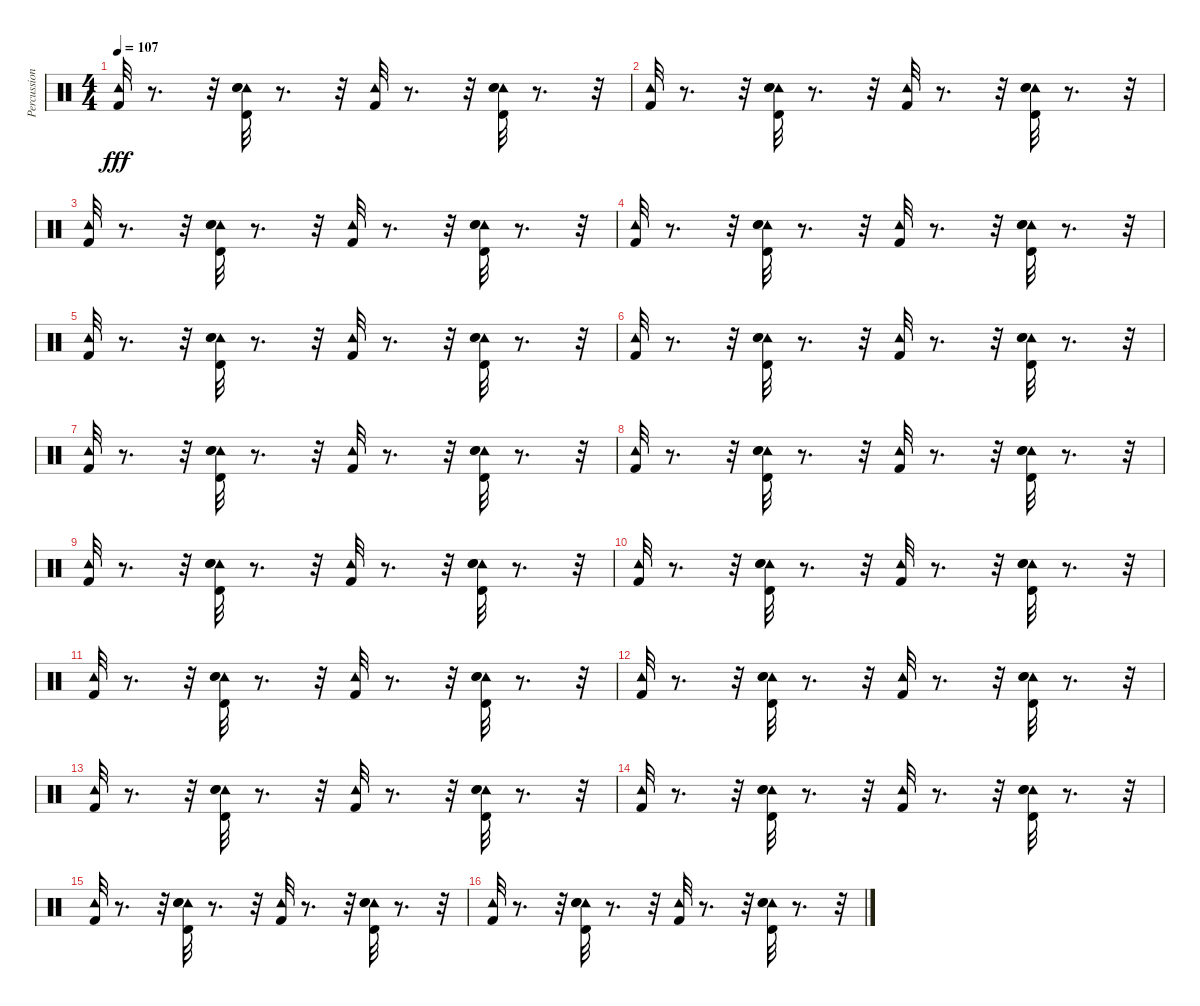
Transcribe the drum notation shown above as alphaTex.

\track ("Percussion" "Percussion") {instrument percussion}
\staff {score}
\articulation defaults
\ts (4 4)
\tempo 107
\clef neutral
\ks c
("Tambourine (hit)" "Kick (hit) 2").32{dy fff} r.8{d} r.32 ("Tambourine (hit)" "Timbale high (hit)" "Electric Snare (hit)" "Snare (hit) 2").32 r.8{d} r.32 ("Tambourine (hit)" "Kick (hit) 2").32 r.8{d} r.32 ("Tambourine (hit)" "Timbale high (hit)" "Electric Snare (hit)" "Snare (hit) 2").32 r.8{d} r.32 |
("Tambourine (hit)" "Kick (hit) 2").32 r.8{d} r.32 ("Tambourine (hit)" "Timbale high (hit)" "Electric Snare (hit)" "Snare (hit) 2").32 r.8{d} r.32 ("Tambourine (hit)" "Kick (hit) 2").32 r.8{d} r.32 ("Tambourine (hit)" "Timbale high (hit)" "Electric Snare (hit)" "Snare (hit) 2").32 r.8{d} r.32 |
("Tambourine (hit)" "Kick (hit) 2").32 r.8{d} r.32 ("Tambourine (hit)" "Timbale high (hit)" "Electric Snare (hit)" "Snare (hit) 2").32 r.8{d} r.32 ("Tambourine (hit)" "Kick (hit) 2").32 r.8{d} r.32 ("Tambourine (hit)" "Timbale high (hit)" "Electric Snare (hit)" "Snare (hit) 2").32 r.8{d} r.32 |
("Tambourine (hit)" "Kick (hit) 2").32 r.8{d} r.32 ("Tambourine (hit)" "Timbale high (hit)" "Electric Snare (hit)" "Snare (hit) 2").32 r.8{d} r.32 ("Tambourine (hit)" "Kick (hit) 2").32 r.8{d} r.32 ("Tambourine (hit)" "Timbale high (hit)" "Electric Snare (hit)" "Snare (hit) 2").32 r.8{d} r.32 |
("Tambourine (hit)" "Kick (hit) 2").32 r.8{d} r.32 ("Tambourine (hit)" "Timbale high (hit)" "Electric Snare (hit)" "Snare (hit) 2").32 r.8{d} r.32 ("Tambourine (hit)" "Kick (hit) 2").32 r.8{d} r.32 ("Tambourine (hit)" "Timbale high (hit)" "Electric Snare (hit)" "Snare (hit) 2").32 r.8{d} r.32 |
("Tambourine (hit)" "Kick (hit) 2").32 r.8{d} r.32 ("Tambourine (hit)" "Timbale high (hit)" "Electric Snare (hit)" "Snare (hit) 2").32 r.8{d} r.32 ("Tambourine (hit)" "Kick (hit) 2").32 r.8{d} r.32 ("Tambourine (hit)" "Timbale high (hit)" "Electric Snare (hit)" "Snare (hit) 2").32 r.8{d} r.32 |
("Tambourine (hit)" "Kick (hit) 2").32 r.8{d} r.32 ("Tambourine (hit)" "Timbale high (hit)" "Electric Snare (hit)" "Snare (hit) 2").32 r.8{d} r.32 ("Tambourine (hit)" "Kick (hit) 2").32 r.8{d} r.32 ("Tambourine (hit)" "Timbale high (hit)" "Electric Snare (hit)" "Snare (hit) 2").32 r.8{d} r.32 |
("Tambourine (hit)" "Kick (hit) 2").32 r.8{d} r.32 ("Tambourine (hit)" "Timbale high (hit)" "Electric Snare (hit)" "Snare (hit) 2").32 r.8{d} r.32 ("Tambourine (hit)" "Kick (hit) 2").32 r.8{d} r.32 ("Tambourine (hit)" "Timbale high (hit)" "Electric Snare (hit)" "Snare (hit) 2").32 r.8{d} r.32 |
("Tambourine (hit)" "Kick (hit) 2").32 r.8{d} r.32 ("Tambourine (hit)" "Timbale high (hit)" "Electric Snare (hit)" "Snare (hit) 2").32 r.8{d} r.32 ("Tambourine (hit)" "Kick (hit) 2").32 r.8{d} r.32 ("Tambourine (hit)" "Timbale high (hit)" "Electric Snare (hit)" "Snare (hit) 2").32 r.8{d} r.32 |
("Tambourine (hit)" "Kick (hit) 2").32 r.8{d} r.32 ("Tambourine (hit)" "Timbale high (hit)" "Electric Snare (hit)" "Snare (hit) 2").32 r.8{d} r.32 ("Tambourine (hit)" "Kick (hit) 2").32 r.8{d} r.32 ("Tambourine (hit)" "Timbale high (hit)" "Electric Snare (hit)" "Snare (hit) 2").32 r.8{d} r.32 |
("Tambourine (hit)" "Kick (hit) 2").32 r.8{d} r.32 ("Tambourine (hit)" "Timbale high (hit)" "Electric Snare (hit)" "Snare (hit) 2").32 r.8{d} r.32 ("Tambourine (hit)" "Kick (hit) 2").32 r.8{d} r.32 ("Tambourine (hit)" "Timbale high (hit)" "Electric Snare (hit)" "Snare (hit) 2").32 r.8{d} r.32 |
("Tambourine (hit)" "Kick (hit) 2").32 r.8{d} r.32 ("Tambourine (hit)" "Timbale high (hit)" "Electric Snare (hit)" "Snare (hit) 2").32 r.8{d} r.32 ("Tambourine (hit)" "Kick (hit) 2").32 r.8{d} r.32 ("Tambourine (hit)" "Timbale high (hit)" "Electric Snare (hit)" "Snare (hit) 2").32 r.8{d} r.32 |
("Tambourine (hit)" "Kick (hit) 2").32 r.8{d} r.32 ("Tambourine (hit)" "Timbale high (hit)" "Electric Snare (hit)" "Snare (hit) 2").32 r.8{d} r.32 ("Tambourine (hit)" "Kick (hit) 2").32 r.8{d} r.32 ("Tambourine (hit)" "Timbale high (hit)" "Electric Snare (hit)" "Snare (hit) 2").32 r.8{d} r.32 |
("Tambourine (hit)" "Kick (hit) 2").32 r.8{d} r.32 ("Tambourine (hit)" "Timbale high (hit)" "Electric Snare (hit)" "Snare (hit) 2").32 r.8{d} r.32 ("Tambourine (hit)" "Kick (hit) 2").32 r.8{d} r.32 ("Tambourine (hit)" "Timbale high (hit)" "Electric Snare (hit)" "Snare (hit) 2").32 r.8{d} r.32 |
("Tambourine (hit)" "Kick (hit) 2").32 r.8{d} r.32 ("Tambourine (hit)" "Timbale high (hit)" "Electric Snare (hit)" "Snare (hit) 2").32 r.8{d} r.32 ("Tambourine (hit)" "Kick (hit) 2").32 r.8{d} r.32 ("Tambourine (hit)" "Timbale high (hit)" "Electric Snare (hit)" "Snare (hit) 2").32 r.8{d} r.32 |
("Tambourine (hit)" "Kick (hit) 2").32 r.8{d} r.32 ("Tambourine (hit)" "Timbale high (hit)" "Electric Snare (hit)" "Snare (hit) 2").32 r.8{d} r.32 ("Tambourine (hit)" "Kick (hit) 2").32 r.8{d} r.32 ("Tambourine (hit)" "Timbale high (hit)" "Electric Snare (hit)" "Snare (hit) 2").32 r.8{d} r.32
